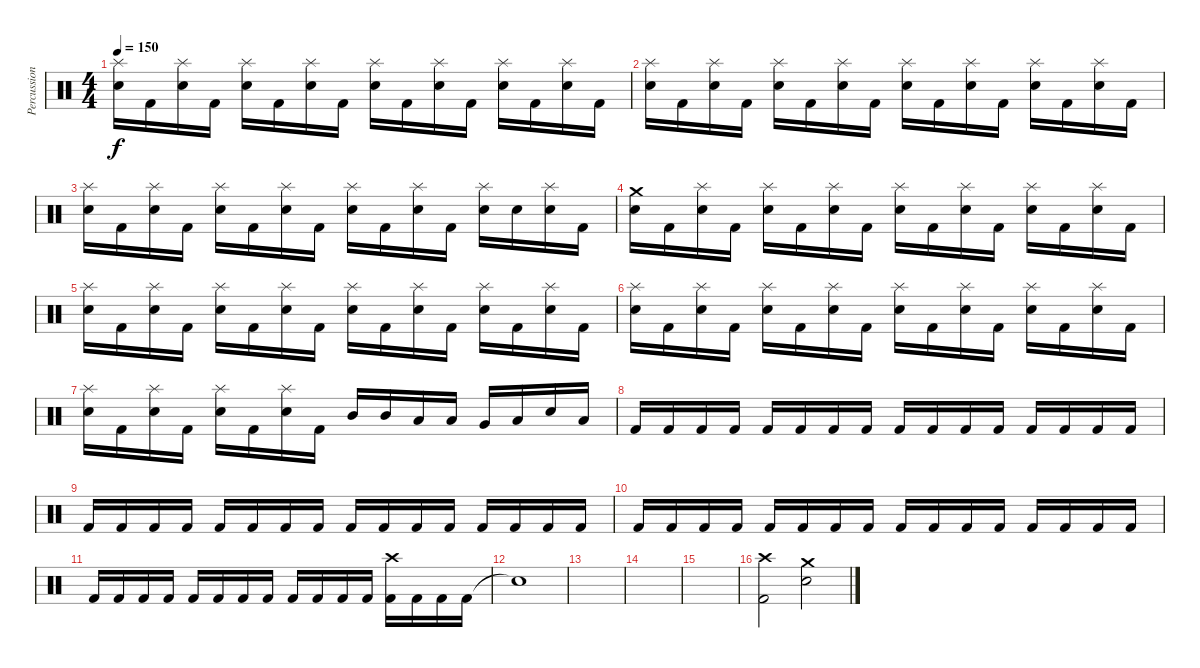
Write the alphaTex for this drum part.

\track ("Percussion" "Percussion") {instrument percussion}
\staff {score}
\articulation defaults
\ts (4 4)
\tempo 150
\clef neutral
\ks c
("Splash (hit)" "Electric Snare (hit)").16{dy f} "Kick (hit) 2".16 ("Splash (hit)" "Electric Snare (hit)").16 "Kick (hit) 2".16 ("Splash (hit)" "Electric Snare (hit)").16 "Kick (hit) 2".16 ("Splash (hit)" "Electric Snare (hit)").16 "Kick (hit) 2".16 ("Splash (hit)" "Electric Snare (hit)").16 "Kick (hit) 2".16 ("Splash (hit)" "Electric Snare (hit)").16 "Kick (hit) 2".16 ("Splash (hit)" "Electric Snare (hit)").16 "Kick (hit) 2".16 ("Splash (hit)" "Electric Snare (hit)").16 "Kick (hit) 2".16 |
("Splash (hit)" "Electric Snare (hit)").16 "Kick (hit) 2".16 ("Splash (hit)" "Electric Snare (hit)").16 "Kick (hit) 2".16 ("Splash (hit)" "Electric Snare (hit)").16 "Kick (hit) 2".16 ("Splash (hit)" "Electric Snare (hit)").16 "Kick (hit) 2".16 ("Splash (hit)" "Electric Snare (hit)").16 "Kick (hit) 2".16 ("Splash (hit)" "Electric Snare (hit)").16 "Kick (hit) 2".16 ("Splash (hit)" "Electric Snare (hit)").16 "Kick (hit) 2".16 ("Splash (hit)" "Electric Snare (hit)").16 "Kick (hit) 2".16 |
("Splash (hit)" "Electric Snare (hit)").16 "Kick (hit) 2".16 ("Splash (hit)" "Electric Snare (hit)").16 "Kick (hit) 2".16 ("Splash (hit)" "Electric Snare (hit)").16 "Kick (hit) 2".16 ("Splash (hit)" "Electric Snare (hit)").16 "Kick (hit) 2".16 ("Splash (hit)" "Electric Snare (hit)").16 "Kick (hit) 2".16 ("Splash (hit)" "Electric Snare (hit)").16 "Kick (hit) 2".16 ("Splash (hit)" "Electric Snare (hit)").16 "Electric Snare (hit)".16 ("Splash (hit)" "Electric Snare (hit)").16 "Kick (hit) 2".16 |
("Crash medium (hit)" "Electric Snare (hit)").16 "Kick (hit) 2".16 ("Splash (hit)" "Electric Snare (hit)").16 "Kick (hit) 2".16 ("Splash (hit)" "Electric Snare (hit)").16 "Kick (hit) 2".16 ("Splash (hit)" "Electric Snare (hit)").16 "Kick (hit) 2".16 ("Splash (hit)" "Electric Snare (hit)").16 "Kick (hit) 2".16 ("Splash (hit)" "Electric Snare (hit)").16 "Kick (hit) 2".16 ("Splash (hit)" "Electric Snare (hit)").16 "Kick (hit) 2".16 ("Splash (hit)" "Electric Snare (hit)").16 "Kick (hit) 2".16 |
("Splash (hit)" "Electric Snare (hit)").16 "Kick (hit) 2".16 ("Splash (hit)" "Electric Snare (hit)").16 "Kick (hit) 2".16 ("Splash (hit)" "Electric Snare (hit)").16 "Kick (hit) 2".16 ("Splash (hit)" "Electric Snare (hit)").16 "Kick (hit) 2".16 ("Splash (hit)" "Electric Snare (hit)").16 "Kick (hit) 2".16 ("Splash (hit)" "Electric Snare (hit)").16 "Kick (hit) 2".16 ("Splash (hit)" "Electric Snare (hit)").16 "Kick (hit) 2".16 ("Splash (hit)" "Electric Snare (hit)").16 "Kick (hit) 2".16 |
("Splash (hit)" "Electric Snare (hit)").16 "Kick (hit) 2".16 ("Splash (hit)" "Electric Snare (hit)").16 "Kick (hit) 2".16 ("Splash (hit)" "Electric Snare (hit)").16 "Kick (hit) 2".16 ("Splash (hit)" "Electric Snare (hit)").16 "Kick (hit) 2".16 ("Splash (hit)" "Electric Snare (hit)").16 "Kick (hit) 2".16 ("Splash (hit)" "Electric Snare (hit)").16 "Kick (hit) 2".16 ("Splash (hit)" "Electric Snare (hit)").16 "Kick (hit) 2".16 ("Splash (hit)" "Electric Snare (hit)").16 "Kick (hit) 2".16 |
("Splash (hit)" "Electric Snare (hit)").16 "Kick (hit) 2".16 ("Splash (hit)" "Electric Snare (hit)").16 "Kick (hit) 2".16 ("Splash (hit)" "Electric Snare (hit)").16 "Kick (hit) 2".16 ("Splash (hit)" "Electric Snare (hit)").16 "Kick (hit) 2".16 "Mid Tom (hit)".16 "Mid Tom (hit)".16 "Low Tom (hit)".16 "Low Tom (hit)".16 "Very Low Tom (hit)".16 "Low Floor Tom (hit)".16 "Electric Snare (hit)".16 "Low Floor Tom (hit)".16 |
"Kick (hit) 2".16 "Kick (hit) 2".16 "Kick (hit) 2".16 "Kick (hit) 2".16 "Kick (hit) 2".16 "Kick (hit) 2".16 "Kick (hit) 2".16 "Kick (hit) 2".16 "Kick (hit) 2".16 "Kick (hit) 2".16 "Kick (hit) 2".16 "Kick (hit) 2".16 "Kick (hit) 2".16 "Kick (hit) 2".16 "Kick (hit) 2".16 "Kick (hit) 2".16 |
"Kick (hit) 2".16 "Kick (hit) 2".16 "Kick (hit) 2".16 "Kick (hit) 2".16 "Kick (hit) 2".16 "Kick (hit) 2".16 "Kick (hit) 2".16 "Kick (hit) 2".16 "Kick (hit) 2".16 "Kick (hit) 2".16 "Kick (hit) 2".16 "Kick (hit) 2".16 "Kick (hit) 2".16 "Kick (hit) 2".16 "Kick (hit) 2".16 "Kick (hit) 2".16 |
"Kick (hit) 2".16 "Kick (hit) 2".16 "Kick (hit) 2".16 "Kick (hit) 2".16 "Kick (hit) 2".16 "Kick (hit) 2".16 "Kick (hit) 2".16 "Kick (hit) 2".16 "Kick (hit) 2".16 "Kick (hit) 2".16 "Kick (hit) 2".16 "Kick (hit) 2".16 "Kick (hit) 2".16 "Kick (hit) 2".16 "Kick (hit) 2".16 "Kick (hit) 2".16 |
"Kick (hit) 2".16 "Kick (hit) 2".16 "Kick (hit) 2".16 "Kick (hit) 2".16 "Kick (hit) 2".16 "Kick (hit) 2".16 "Kick (hit) 2".16 "Kick (hit) 2".16 "Kick (hit) 2".16 "Kick (hit) 2".16 "Kick (hit) 2".16 "Kick (hit) 2".16 ("Crash high (hit)" "Kick (hit) 2").16 "Kick (hit) 2".16 "Kick (hit) 2".16 "Kick (hit) 2".16 |
"Snare (hit)"{t}.1 |
|
|
|
("Crash high (hit)" "Kick (hit) 2").2 ("Crash medium (hit)" "Electric Snare (hit)").2
